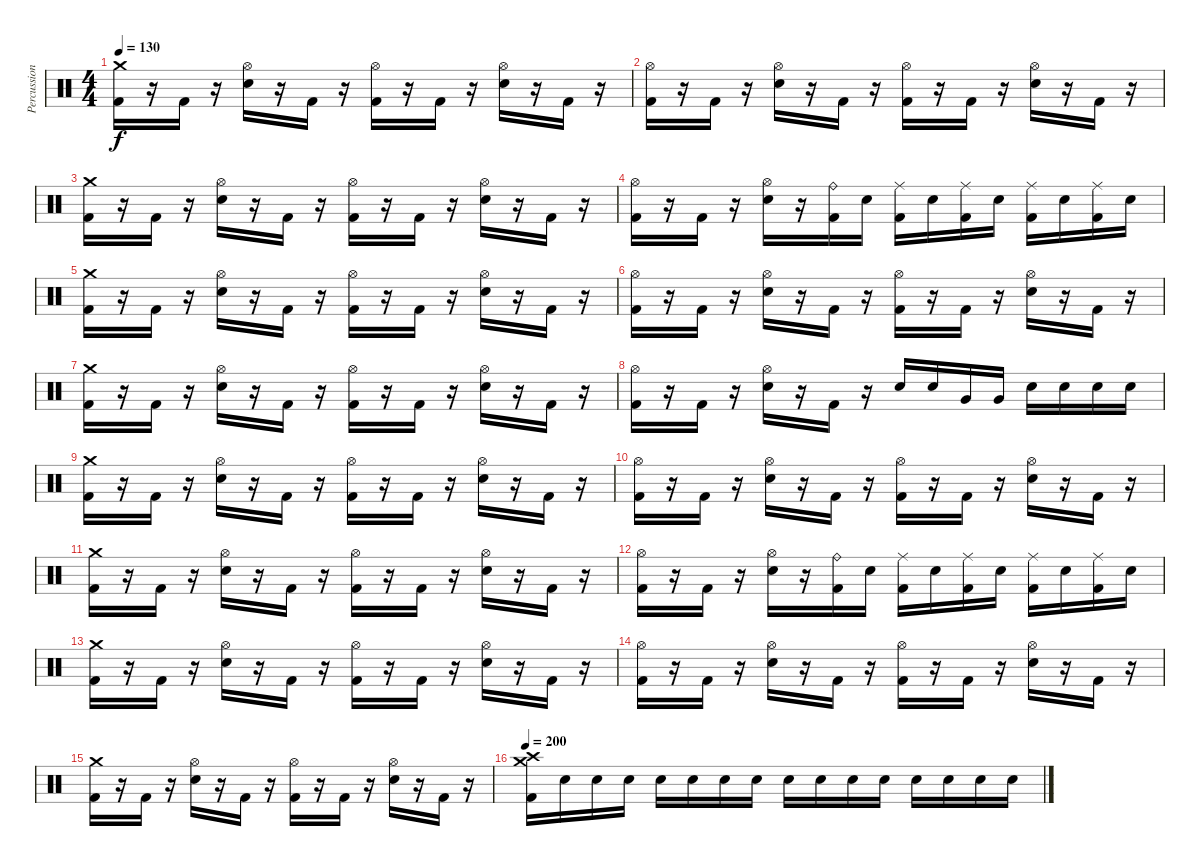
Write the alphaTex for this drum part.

\track ("Percussion" "Percussion") {instrument percussion}
\staff {score}
\articulation defaults
\ts (4 4)
\tempo 130
\clef neutral
\ks c
("Crash medium (hit)" "Kick (hit) 2").16{dy f} r.16 "Kick (hit) 2".16 r.16 ("Hi-Hat (open)" "Electric Snare (hit)").16 r.16 "Kick (hit) 2".16 r.16 ("Hi-Hat (open)" "Kick (hit) 2").16 r.16 "Kick (hit) 2".16 r.16 ("Hi-Hat (open)" "Electric Snare (hit)").16 r.16 "Kick (hit) 2".16 r.16 |
("Hi-Hat (open)" "Kick (hit) 2").16 r.16 "Kick (hit) 2".16 r.16 ("Hi-Hat (open)" "Electric Snare (hit)").16 r.16 "Kick (hit) 2".16 r.16 ("Hi-Hat (open)" "Kick (hit) 2").16 r.16 "Kick (hit) 2".16 r.16 ("Hi-Hat (open)" "Electric Snare (hit)").16 r.16 "Kick (hit) 2".16 r.16 |
("Crash medium (hit)" "Kick (hit) 2").16 r.16 "Kick (hit) 2".16 r.16 ("Hi-Hat (open)" "Electric Snare (hit)").16 r.16 "Kick (hit) 2".16 r.16 ("Hi-Hat (open)" "Kick (hit) 2").16 r.16 "Kick (hit) 2".16 r.16 ("Hi-Hat (open)" "Electric Snare (hit)").16 r.16 "Kick (hit) 2".16 r.16 |
("Hi-Hat (open)" "Kick (hit) 2").16 r.16 "Kick (hit) 2".16 r.16 ("Hi-Hat (open)" "Electric Snare (hit)").16 r.16 ("Ride (bell)" "Kick (hit) 2").16 "Electric Snare (hit)".16 ("Ride (middle)" "Kick (hit) 2").16 "Electric Snare (hit)".16 ("Ride (middle)" "Kick (hit) 2").16 "Electric Snare (hit)".16 ("Ride (middle)" "Kick (hit) 2").16 "Electric Snare (hit)".16 ("Ride (middle)" "Kick (hit) 2").16 "Electric Snare (hit)".16 |
("Crash medium (hit)" "Kick (hit) 2").16 r.16 "Kick (hit) 2".16 r.16 ("Hi-Hat (open)" "Electric Snare (hit)").16 r.16 "Kick (hit) 2".16 r.16 ("Hi-Hat (open)" "Kick (hit) 2").16 r.16 "Kick (hit) 2".16 r.16 ("Hi-Hat (open)" "Electric Snare (hit)").16 r.16 "Kick (hit) 2".16 r.16 |
("Hi-Hat (open)" "Kick (hit) 2").16 r.16 "Kick (hit) 2".16 r.16 ("Hi-Hat (open)" "Electric Snare (hit)").16 r.16 "Kick (hit) 2".16 r.16 ("Hi-Hat (open)" "Kick (hit) 2").16 r.16 "Kick (hit) 2".16 r.16 ("Hi-Hat (open)" "Electric Snare (hit)").16 r.16 "Kick (hit) 2".16 r.16 |
("Crash medium (hit)" "Kick (hit) 2").16 r.16 "Kick (hit) 2".16 r.16 ("Hi-Hat (open)" "Electric Snare (hit)").16 r.16 "Kick (hit) 2".16 r.16 ("Hi-Hat (open)" "Kick (hit) 2").16 r.16 "Kick (hit) 2".16 r.16 ("Hi-Hat (open)" "Electric Snare (hit)").16 r.16 "Kick (hit) 2".16 r.16 |
("Hi-Hat (open)" "Kick (hit) 2").16 r.16 "Kick (hit) 2".16 r.16 ("Hi-Hat (open)" "Electric Snare (hit)").16 r.16 "Kick (hit) 2".16 r.16 "Electric Snare (hit)".16 "Electric Snare (hit)".16 "Very Low Tom (hit)".16 "Very Low Tom (hit)".16 "Electric Snare (hit)".16 "Electric Snare (hit)".16 "Electric Snare (hit)".16 "Electric Snare (hit)".16 |
("Crash medium (hit)" "Kick (hit) 2").16 r.16 "Kick (hit) 2".16 r.16 ("Hi-Hat (open)" "Electric Snare (hit)").16 r.16 "Kick (hit) 2".16 r.16 ("Hi-Hat (open)" "Kick (hit) 2").16 r.16 "Kick (hit) 2".16 r.16 ("Hi-Hat (open)" "Electric Snare (hit)").16 r.16 "Kick (hit) 2".16 r.16 |
("Hi-Hat (open)" "Kick (hit) 2").16 r.16 "Kick (hit) 2".16 r.16 ("Hi-Hat (open)" "Electric Snare (hit)").16 r.16 "Kick (hit) 2".16 r.16 ("Hi-Hat (open)" "Kick (hit) 2").16 r.16 "Kick (hit) 2".16 r.16 ("Hi-Hat (open)" "Electric Snare (hit)").16 r.16 "Kick (hit) 2".16 r.16 |
("Crash medium (hit)" "Kick (hit) 2").16 r.16 "Kick (hit) 2".16 r.16 ("Hi-Hat (open)" "Electric Snare (hit)").16 r.16 "Kick (hit) 2".16 r.16 ("Hi-Hat (open)" "Kick (hit) 2").16 r.16 "Kick (hit) 2".16 r.16 ("Hi-Hat (open)" "Electric Snare (hit)").16 r.16 "Kick (hit) 2".16 r.16 |
("Hi-Hat (open)" "Kick (hit) 2").16 r.16 "Kick (hit) 2".16 r.16 ("Hi-Hat (open)" "Electric Snare (hit)").16 r.16 ("Ride (bell)" "Kick (hit) 2").16 "Electric Snare (hit)".16 ("Ride (middle)" "Kick (hit) 2").16 "Electric Snare (hit)".16 ("Ride (middle)" "Kick (hit) 2").16 "Electric Snare (hit)".16 ("Ride (middle)" "Kick (hit) 2").16 "Electric Snare (hit)".16 ("Ride (middle)" "Kick (hit) 2").16 "Electric Snare (hit)".16 |
("Crash medium (hit)" "Kick (hit) 2").16 r.16 "Kick (hit) 2".16 r.16 ("Hi-Hat (open)" "Electric Snare (hit)").16 r.16 "Kick (hit) 2".16 r.16 ("Hi-Hat (open)" "Kick (hit) 2").16 r.16 "Kick (hit) 2".16 r.16 ("Hi-Hat (open)" "Electric Snare (hit)").16 r.16 "Kick (hit) 2".16 r.16 |
("Hi-Hat (open)" "Kick (hit) 2").16 r.16 "Kick (hit) 2".16 r.16 ("Hi-Hat (open)" "Electric Snare (hit)").16 r.16 "Kick (hit) 2".16 r.16 ("Hi-Hat (open)" "Kick (hit) 2").16 r.16 "Kick (hit) 2".16 r.16 ("Hi-Hat (open)" "Electric Snare (hit)").16 r.16 "Kick (hit) 2".16 r.16 |
("Crash medium (hit)" "Kick (hit) 2").16 r.16 "Kick (hit) 2".16 r.16 ("Hi-Hat (open)" "Electric Snare (hit)").16 r.16 "Kick (hit) 2".16 r.16 ("Hi-Hat (open)" "Kick (hit) 2").16 r.16 "Kick (hit) 2".16 r.16 ("Hi-Hat (open)" "Electric Snare (hit)").16 r.16 "Kick (hit) 2".16 r.16 |
\tempo 200
("Crash medium (hit)" "Crash high (hit)" "Kick (hit) 2").16 "Electric Snare (hit)".16 "Electric Snare (hit)".16 "Electric Snare (hit)".16 "Electric Snare (hit)".16 "Electric Snare (hit)".16 "Electric Snare (hit)".16 "Electric Snare (hit)".16 "Electric Snare (hit)".16 "Electric Snare (hit)".16 "Electric Snare (hit)".16 "Electric Snare (hit)".16 "Electric Snare (hit)".16 "Electric Snare (hit)".16 "Electric Snare (hit)".16 "Electric Snare (hit)".16
